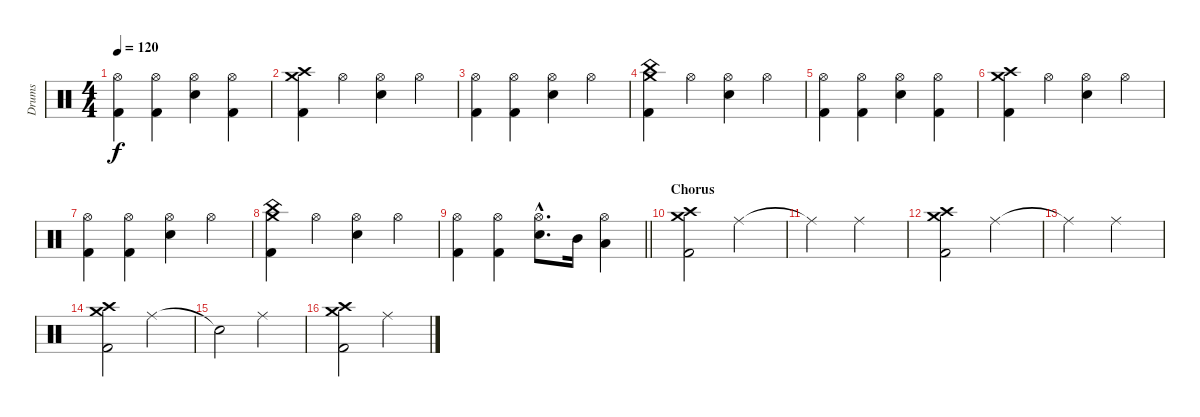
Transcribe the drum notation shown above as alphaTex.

\track ("Drums" "Drums") {instrument percussion}
\staff {score}
\articulation defaults
\ts (4 4)
\tempo 120
\clef neutral
\ks c
("Hi-Hat (open)" "Kick (hit) 2").4{dy f} ("Hi-Hat (open)" "Kick (hit) 2").4 ("Hi-Hat (open)" "Snare (hit) 2").4 ("Hi-Hat (open)" "Kick (hit) 2").4 |
("Crash high (hit)" "Crash medium (hit)" "Kick (hit) 2").4 "Hi-Hat (open)".4 ("Hi-Hat (open)" "Snare (hit) 2").4 "Hi-Hat (open)".4 |
("Hi-Hat (open)" "Kick (hit) 2").4 ("Hi-Hat (open)" "Kick (hit) 2").4 ("Hi-Hat (open)" "Snare (hit) 2").4 "Hi-Hat (open)".4 |
("Crash medium (hit)" "China (hit)" "Kick (hit) 2").4 "Hi-Hat (open)".4 ("Hi-Hat (open)" "Snare (hit) 2").4 "Hi-Hat (open)".4 |
("Hi-Hat (open)" "Kick (hit) 2").4 ("Hi-Hat (open)" "Kick (hit) 2").4 ("Hi-Hat (open)" "Snare (hit) 2").4 ("Hi-Hat (open)" "Kick (hit) 2").4 |
("Crash high (hit)" "Crash medium (hit)" "Kick (hit) 2").4 "Hi-Hat (open)".4 ("Hi-Hat (open)" "Snare (hit) 2").4 "Hi-Hat (open)".4 |
("Hi-Hat (open)" "Kick (hit) 2").4 ("Hi-Hat (open)" "Kick (hit) 2").4 ("Hi-Hat (open)" "Snare (hit) 2").4 "Hi-Hat (open)".4 |
("Crash medium (hit)" "China (hit)" "Kick (hit) 2").4 "Hi-Hat (open)".4 ("Hi-Hat (open)" "Snare (hit) 2").4 "Hi-Hat (open)".4 |
\barLineRight lightlight
("Hi-Hat (open)" "Kick (hit) 2").4 ("Hi-Hat (open)" "Kick (hit) 2").4 ("Hi-Hat (open)"{hac} "Snare (hit) 2"{hac}).8{d} "Mid Tom (hit)".16 ("Hi-Hat (open)" "Low Tom (hit)").4 |
\section ("" "Chorus")
("Crash high (hit)" "Crash medium (hit)" "Kick (hit) 2").2 "Ride (middle)".2 |
"Ride (middle)"{t}.2 "Ride (middle)".2 |
("Crash high (hit)" "Crash medium (hit)" "Kick (hit) 2").2 "Ride (middle)".2 |
"Ride (middle)"{t}.2 "Ride (middle)".2 |
("Crash high (hit)" "Crash medium (hit)" "Kick (hit) 2").2 "Ride (middle)".2 |
"Snare (hit)"{t}.2 "Ride (middle)".2 |
("Crash high (hit)" "Crash medium (hit)" "Kick (hit) 2").2 "Ride (middle)".2
